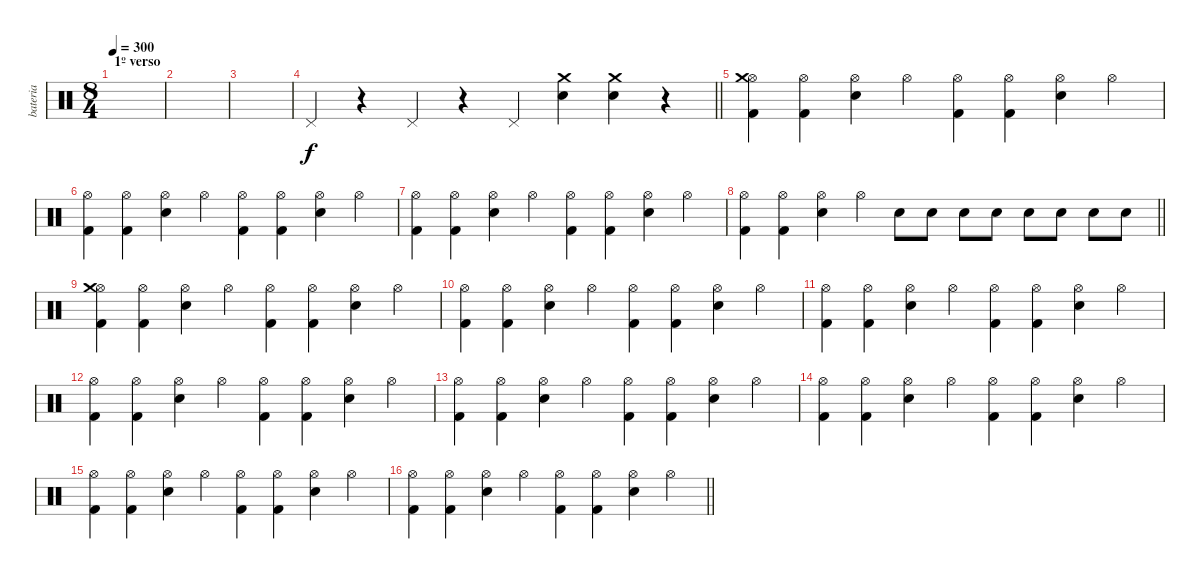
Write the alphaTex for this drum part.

\track ("bateria" "bateria") {instrument percussion}
\staff {score}
\articulation defaults
\ts (8 4)
\section ("" "1º verso")
\tempo 300
\clef neutral
\ks c
|
|
|
\barLineRight lightlight "Pedal Hi-Hat (hit)".4
r.4 "Pedal Hi-Hat (hit)".4 r.4 "Pedal Hi-Hat (hit)".4 ("Electric Snare (hit)" "Crash medium (hit)").4 ("Electric Snare (hit)" "Crash medium (hit)").4 r.4 |
("Hi-Hat (open)" "Kick (hit) 2" "Crash medium (hit)").4 ("Hi-Hat (open)" "Kick (hit) 2").4 ("Hi-Hat (open)" "Electric Snare (hit)").4 "Hi-Hat (open)".4 ("Hi-Hat (open)" "Kick (hit) 2").4 ("Hi-Hat (open)" "Kick (hit) 2").4 ("Hi-Hat (open)" "Electric Snare (hit)").4 "Hi-Hat (open)".4 |
("Hi-Hat (open)" "Kick (hit) 2").4 ("Hi-Hat (open)" "Kick (hit) 2").4 ("Hi-Hat (open)" "Electric Snare (hit)").4 "Hi-Hat (open)".4 ("Hi-Hat (open)" "Kick (hit) 2").4 ("Hi-Hat (open)" "Kick (hit) 2").4 ("Hi-Hat (open)" "Electric Snare (hit)").4 "Hi-Hat (open)".4 |
("Hi-Hat (open)" "Kick (hit) 2").4 ("Hi-Hat (open)" "Kick (hit) 2").4 ("Hi-Hat (open)" "Electric Snare (hit)").4 "Hi-Hat (open)".4 ("Hi-Hat (open)" "Kick (hit) 2").4 ("Hi-Hat (open)" "Kick (hit) 2").4 ("Hi-Hat (open)" "Electric Snare (hit)").4 "Hi-Hat (open)".4 |
\barLineRight lightlight
("Hi-Hat (open)" "Kick (hit) 2").4 ("Hi-Hat (open)" "Kick (hit) 2").4 ("Hi-Hat (open)" "Electric Snare (hit)").4 "Hi-Hat (open)".4 "Electric Snare (hit)".8 "Electric Snare (hit)".8 "Electric Snare (hit)".8 "Electric Snare (hit)".8 "Electric Snare (hit)".8 "Electric Snare (hit)".8 "Electric Snare (hit)".8 "Electric Snare (hit)".8 |
("Hi-Hat (open)" "Kick (hit) 2" "Crash medium (hit)").4 ("Hi-Hat (open)" "Kick (hit) 2").4 ("Hi-Hat (open)" "Electric Snare (hit)").4 "Hi-Hat (open)".4 ("Hi-Hat (open)" "Kick (hit) 2").4 ("Hi-Hat (open)" "Kick (hit) 2").4 ("Hi-Hat (open)" "Electric Snare (hit)").4 "Hi-Hat (open)".4 |
("Hi-Hat (open)" "Kick (hit) 2").4 ("Hi-Hat (open)" "Kick (hit) 2").4 ("Hi-Hat (open)" "Electric Snare (hit)").4 "Hi-Hat (open)".4 ("Hi-Hat (open)" "Kick (hit) 2").4 ("Hi-Hat (open)" "Kick (hit) 2").4 ("Hi-Hat (open)" "Electric Snare (hit)").4 "Hi-Hat (open)".4 |
("Hi-Hat (open)" "Kick (hit) 2").4 ("Hi-Hat (open)" "Kick (hit) 2").4 ("Hi-Hat (open)" "Electric Snare (hit)").4 "Hi-Hat (open)".4 ("Hi-Hat (open)" "Kick (hit) 2").4 ("Hi-Hat (open)" "Kick (hit) 2").4 ("Hi-Hat (open)" "Electric Snare (hit)").4 "Hi-Hat (open)".4 |
("Hi-Hat (open)" "Kick (hit) 2").4 ("Hi-Hat (open)" "Kick (hit) 2").4 ("Hi-Hat (open)" "Electric Snare (hit)").4 "Hi-Hat (open)".4 ("Hi-Hat (open)" "Kick (hit) 2").4 ("Hi-Hat (open)" "Kick (hit) 2").4 ("Hi-Hat (open)" "Electric Snare (hit)").4 "Hi-Hat (open)".4 |
("Hi-Hat (open)" "Kick (hit) 2").4 ("Hi-Hat (open)" "Kick (hit) 2").4 ("Hi-Hat (open)" "Electric Snare (hit)").4 "Hi-Hat (open)".4 ("Hi-Hat (open)" "Kick (hit) 2").4 ("Hi-Hat (open)" "Kick (hit) 2").4 ("Hi-Hat (open)" "Electric Snare (hit)").4 "Hi-Hat (open)".4 |
("Hi-Hat (open)" "Kick (hit) 2").4 ("Hi-Hat (open)" "Kick (hit) 2").4 ("Hi-Hat (open)" "Electric Snare (hit)").4 "Hi-Hat (open)".4 ("Hi-Hat (open)" "Kick (hit) 2").4 ("Hi-Hat (open)" "Kick (hit) 2").4 ("Hi-Hat (open)" "Electric Snare (hit)").4 "Hi-Hat (open)".4 |
("Hi-Hat (open)" "Kick (hit) 2").4 ("Hi-Hat (open)" "Kick (hit) 2").4 ("Hi-Hat (open)" "Electric Snare (hit)").4 "Hi-Hat (open)".4 ("Hi-Hat (open)" "Kick (hit) 2").4 ("Hi-Hat (open)" "Kick (hit) 2").4 ("Hi-Hat (open)" "Electric Snare (hit)").4 "Hi-Hat (open)".4 |
\barLineRight lightlight
("Hi-Hat (open)" "Kick (hit) 2").4 ("Hi-Hat (open)" "Kick (hit) 2").4 ("Hi-Hat (open)" "Electric Snare (hit)").4 "Hi-Hat (open)".4 ("Hi-Hat (open)" "Kick (hit) 2").4 ("Hi-Hat (open)" "Kick (hit) 2").4 ("Hi-Hat (open)" "Electric Snare (hit)").4 "Hi-Hat (open)".4
